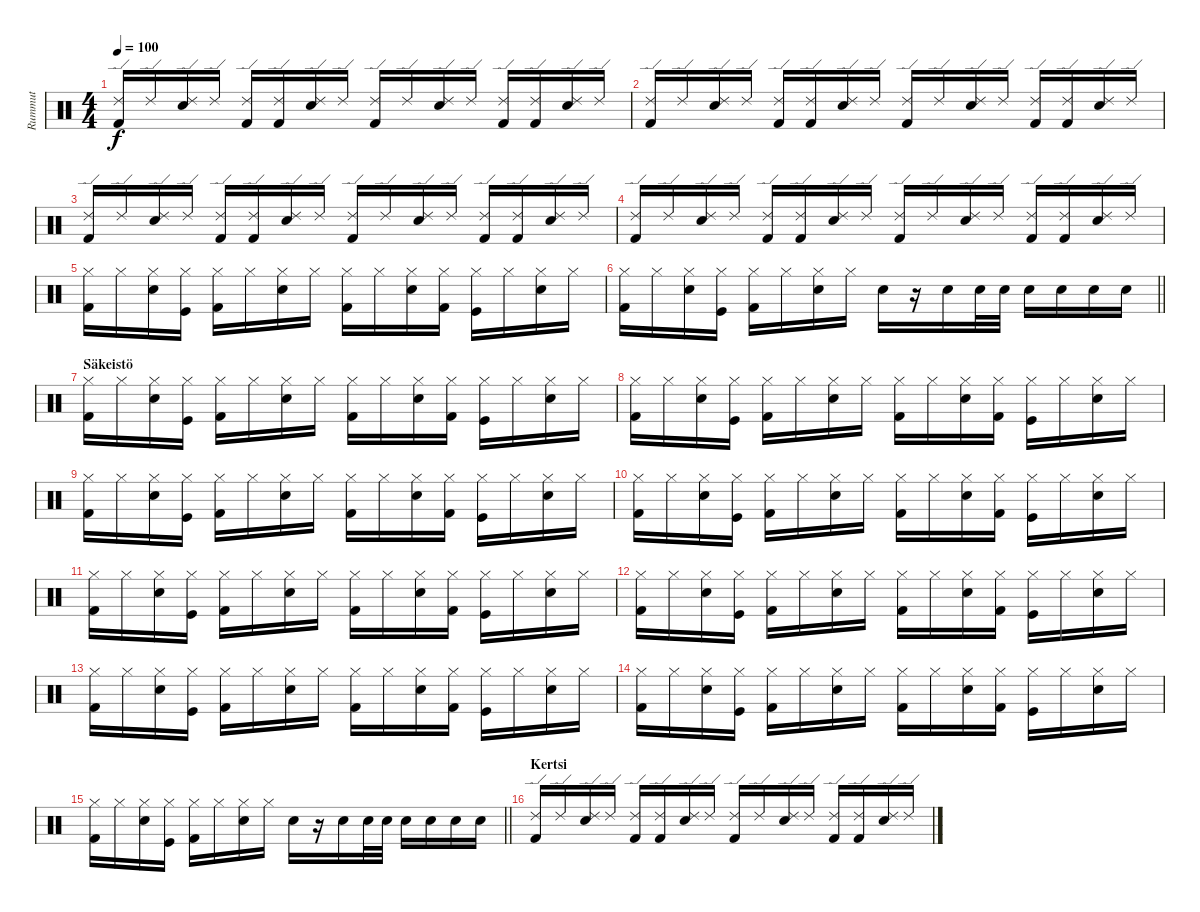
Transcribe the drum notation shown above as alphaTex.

\track ("Rummut" "Rummut") {instrument percussion}
\staff {score}
\articulation defaults
\ts (4 4)
\tempo 100
\clef neutral
\ks c
("Ride (edge) 2" "Kick (hit) 2").16{dy f} "Ride (edge) 2".16 ("Ride (edge) 2" "Snare (hit) 2").16 "Ride (edge) 2".16 ("Ride (edge) 2" "Kick (hit) 2").16 ("Ride (edge) 2" "Kick (hit) 2").16 ("Ride (edge) 2" "Snare (hit) 2").16 "Ride (edge) 2".16 ("Ride (edge) 2" "Kick (hit) 2").16 "Ride (edge) 2".16 ("Ride (edge) 2" "Snare (hit) 2").16 "Ride (edge) 2".16 ("Ride (edge) 2" "Kick (hit) 2").16 ("Ride (edge) 2" "Kick (hit) 2").16 ("Ride (edge) 2" "Snare (hit) 2").16 "Ride (edge) 2".16 |
("Ride (edge) 2" "Kick (hit) 2").16 "Ride (edge) 2".16 ("Ride (edge) 2" "Snare (hit) 2").16 "Ride (edge) 2".16 ("Ride (edge) 2" "Kick (hit) 2").16 ("Ride (edge) 2" "Kick (hit) 2").16 ("Ride (edge) 2" "Snare (hit) 2").16 "Ride (edge) 2".16 ("Ride (edge) 2" "Kick (hit) 2").16 "Ride (edge) 2".16 ("Ride (edge) 2" "Snare (hit) 2").16 "Ride (edge) 2".16 ("Ride (edge) 2" "Kick (hit) 2").16 ("Ride (edge) 2" "Kick (hit) 2").16 ("Ride (edge) 2" "Snare (hit) 2").16 "Ride (edge) 2".16 |
("Ride (edge) 2" "Kick (hit) 2").16 "Ride (edge) 2".16 ("Ride (edge) 2" "Snare (hit) 2").16 "Ride (edge) 2".16 ("Ride (edge) 2" "Kick (hit) 2").16 ("Ride (edge) 2" "Kick (hit) 2").16 ("Ride (edge) 2" "Snare (hit) 2").16 "Ride (edge) 2".16 ("Ride (edge) 2" "Kick (hit) 2").16 "Ride (edge) 2".16 ("Ride (edge) 2" "Snare (hit) 2").16 "Ride (edge) 2".16 ("Ride (edge) 2" "Kick (hit) 2").16 ("Ride (edge) 2" "Kick (hit) 2").16 ("Ride (edge) 2" "Snare (hit) 2").16 "Ride (edge) 2".16 |
("Ride (edge) 2" "Kick (hit) 2").16 "Ride (edge) 2".16 ("Ride (edge) 2" "Snare (hit) 2").16 "Ride (edge) 2".16 ("Ride (edge) 2" "Kick (hit) 2").16 ("Ride (edge) 2" "Kick (hit) 2").16 ("Ride (edge) 2" "Snare (hit) 2").16 "Ride (edge) 2".16 ("Ride (edge) 2" "Kick (hit) 2").16 "Ride (edge) 2".16 ("Ride (edge) 2" "Snare (hit) 2").16 "Ride (edge) 2".16 ("Ride (edge) 2" "Kick (hit) 2").16 ("Ride (edge) 2" "Kick (hit) 2").16 ("Ride (edge) 2" "Snare (hit) 2").16 "Ride (edge) 2".16 |
("Hi-Hat (closed)" "Kick (hit) 2").16 "Hi-Hat (closed)".16 ("Hi-Hat (closed)" "Snare (hit) 2").16 ("Hi-Hat (closed)" "Kick (hit)").16 ("Hi-Hat (closed)" "Kick (hit) 2").16 "Hi-Hat (closed)".16 ("Hi-Hat (closed)" "Snare (hit) 2").16 "Hi-Hat (closed)".16 ("Hi-Hat (closed)" "Kick (hit) 2").16 "Hi-Hat (closed)".16 ("Hi-Hat (closed)" "Snare (hit) 2").16 ("Hi-Hat (closed)" "Kick (hit) 2").16 ("Hi-Hat (closed)" "Kick (hit)").16 "Hi-Hat (closed)".16 ("Hi-Hat (closed)" "Snare (hit) 2").16 "Hi-Hat (closed)".16 |
\barLineRight lightlight
("Hi-Hat (closed)" "Kick (hit) 2").16 "Hi-Hat (closed)".16 ("Hi-Hat (closed)" "Snare (hit) 2").16 ("Hi-Hat (closed)" "Kick (hit)").16 ("Hi-Hat (closed)" "Kick (hit) 2").16 "Hi-Hat (closed)".16 ("Hi-Hat (closed)" "Snare (hit) 2").16 "Hi-Hat (closed)".16 "Snare (hit) 2".16 r.16 "Snare (hit) 2".16 "Snare (hit) 2".32 "Snare (hit) 2".32 "Snare (hit) 2".16 "Snare (hit) 2".16 "Snare (hit) 2".16 "Snare (hit) 2".16 |
\section ("" "Säkeistö")
("Hi-Hat (closed)" "Kick (hit) 2").16 "Hi-Hat (closed)".16 ("Hi-Hat (closed)" "Snare (hit) 2").16 ("Hi-Hat (closed)" "Kick (hit)").16 ("Hi-Hat (closed)" "Kick (hit) 2").16 "Hi-Hat (closed)".16 ("Hi-Hat (closed)" "Snare (hit) 2").16 "Hi-Hat (closed)".16 ("Hi-Hat (closed)" "Kick (hit) 2").16 "Hi-Hat (closed)".16 ("Hi-Hat (closed)" "Snare (hit) 2").16 ("Hi-Hat (closed)" "Kick (hit) 2").16 ("Hi-Hat (closed)" "Kick (hit)").16 "Hi-Hat (closed)".16 ("Hi-Hat (closed)" "Snare (hit) 2").16 "Hi-Hat (closed)".16 |
("Hi-Hat (closed)" "Kick (hit) 2").16 "Hi-Hat (closed)".16 ("Hi-Hat (closed)" "Snare (hit) 2").16 ("Hi-Hat (closed)" "Kick (hit)").16 ("Hi-Hat (closed)" "Kick (hit) 2").16 "Hi-Hat (closed)".16 ("Hi-Hat (closed)" "Snare (hit) 2").16 "Hi-Hat (closed)".16 ("Hi-Hat (closed)" "Kick (hit) 2").16 "Hi-Hat (closed)".16 ("Hi-Hat (closed)" "Snare (hit) 2").16 ("Hi-Hat (closed)" "Kick (hit) 2").16 ("Hi-Hat (closed)" "Kick (hit)").16 "Hi-Hat (closed)".16 ("Hi-Hat (closed)" "Snare (hit) 2").16 "Hi-Hat (closed)".16 |
("Hi-Hat (closed)" "Kick (hit) 2").16 "Hi-Hat (closed)".16 ("Hi-Hat (closed)" "Snare (hit) 2").16 ("Hi-Hat (closed)" "Kick (hit)").16 ("Hi-Hat (closed)" "Kick (hit) 2").16 "Hi-Hat (closed)".16 ("Hi-Hat (closed)" "Snare (hit) 2").16 "Hi-Hat (closed)".16 ("Hi-Hat (closed)" "Kick (hit) 2").16 "Hi-Hat (closed)".16 ("Hi-Hat (closed)" "Snare (hit) 2").16 ("Hi-Hat (closed)" "Kick (hit) 2").16 ("Hi-Hat (closed)" "Kick (hit)").16 "Hi-Hat (closed)".16 ("Hi-Hat (closed)" "Snare (hit) 2").16 "Hi-Hat (closed)".16 |
("Hi-Hat (closed)" "Kick (hit) 2").16 "Hi-Hat (closed)".16 ("Hi-Hat (closed)" "Snare (hit) 2").16 ("Hi-Hat (closed)" "Kick (hit)").16 ("Hi-Hat (closed)" "Kick (hit) 2").16 "Hi-Hat (closed)".16 ("Hi-Hat (closed)" "Snare (hit) 2").16 "Hi-Hat (closed)".16 ("Hi-Hat (closed)" "Kick (hit) 2").16 "Hi-Hat (closed)".16 ("Hi-Hat (closed)" "Snare (hit) 2").16 ("Hi-Hat (closed)" "Kick (hit) 2").16 ("Hi-Hat (closed)" "Kick (hit)").16 "Hi-Hat (closed)".16 ("Hi-Hat (closed)" "Snare (hit) 2").16 "Hi-Hat (closed)".16 |
("Hi-Hat (closed)" "Kick (hit) 2").16 "Hi-Hat (closed)".16 ("Hi-Hat (closed)" "Snare (hit) 2").16 ("Hi-Hat (closed)" "Kick (hit)").16 ("Hi-Hat (closed)" "Kick (hit) 2").16 "Hi-Hat (closed)".16 ("Hi-Hat (closed)" "Snare (hit) 2").16 "Hi-Hat (closed)".16 ("Hi-Hat (closed)" "Kick (hit) 2").16 "Hi-Hat (closed)".16 ("Hi-Hat (closed)" "Snare (hit) 2").16 ("Hi-Hat (closed)" "Kick (hit) 2").16 ("Hi-Hat (closed)" "Kick (hit)").16 "Hi-Hat (closed)".16 ("Hi-Hat (closed)" "Snare (hit) 2").16 "Hi-Hat (closed)".16 |
("Hi-Hat (closed)" "Kick (hit) 2").16 "Hi-Hat (closed)".16 ("Hi-Hat (closed)" "Snare (hit) 2").16 ("Hi-Hat (closed)" "Kick (hit)").16 ("Hi-Hat (closed)" "Kick (hit) 2").16 "Hi-Hat (closed)".16 ("Hi-Hat (closed)" "Snare (hit) 2").16 "Hi-Hat (closed)".16 ("Hi-Hat (closed)" "Kick (hit) 2").16 "Hi-Hat (closed)".16 ("Hi-Hat (closed)" "Snare (hit) 2").16 ("Hi-Hat (closed)" "Kick (hit) 2").16 ("Hi-Hat (closed)" "Kick (hit)").16 "Hi-Hat (closed)".16 ("Hi-Hat (closed)" "Snare (hit) 2").16 "Hi-Hat (closed)".16 |
("Hi-Hat (closed)" "Kick (hit) 2").16 "Hi-Hat (closed)".16 ("Hi-Hat (closed)" "Snare (hit) 2").16 ("Hi-Hat (closed)" "Kick (hit)").16 ("Hi-Hat (closed)" "Kick (hit) 2").16 "Hi-Hat (closed)".16 ("Hi-Hat (closed)" "Snare (hit) 2").16 "Hi-Hat (closed)".16 ("Hi-Hat (closed)" "Kick (hit) 2").16 "Hi-Hat (closed)".16 ("Hi-Hat (closed)" "Snare (hit) 2").16 ("Hi-Hat (closed)" "Kick (hit) 2").16 ("Hi-Hat (closed)" "Kick (hit)").16 "Hi-Hat (closed)".16 ("Hi-Hat (closed)" "Snare (hit) 2").16 "Hi-Hat (closed)".16 |
("Hi-Hat (closed)" "Kick (hit) 2").16 "Hi-Hat (closed)".16 ("Hi-Hat (closed)" "Snare (hit) 2").16 ("Hi-Hat (closed)" "Kick (hit)").16 ("Hi-Hat (closed)" "Kick (hit) 2").16 "Hi-Hat (closed)".16 ("Hi-Hat (closed)" "Snare (hit) 2").16 "Hi-Hat (closed)".16 ("Hi-Hat (closed)" "Kick (hit) 2").16 "Hi-Hat (closed)".16 ("Hi-Hat (closed)" "Snare (hit) 2").16 ("Hi-Hat (closed)" "Kick (hit) 2").16 ("Hi-Hat (closed)" "Kick (hit)").16 "Hi-Hat (closed)".16 ("Hi-Hat (closed)" "Snare (hit) 2").16 "Hi-Hat (closed)".16 |
\barLineRight lightlight
("Hi-Hat (closed)" "Kick (hit) 2").16 "Hi-Hat (closed)".16 ("Hi-Hat (closed)" "Snare (hit) 2").16 ("Hi-Hat (closed)" "Kick (hit)").16 ("Hi-Hat (closed)" "Kick (hit) 2").16 "Hi-Hat (closed)".16 ("Hi-Hat (closed)" "Snare (hit) 2").16 "Hi-Hat (closed)".16 "Snare (hit) 2".16 r.16 "Snare (hit) 2".16 "Snare (hit) 2".32 "Snare (hit) 2".32 "Snare (hit) 2".16 "Snare (hit) 2".16 "Snare (hit) 2".16 "Snare (hit) 2".16 |
\section ("" "Kertsi")
("Ride (edge) 2" "Kick (hit) 2").16 "Ride (edge) 2".16 ("Ride (edge) 2" "Snare (hit) 2").16 "Ride (edge) 2".16 ("Ride (edge) 2" "Kick (hit) 2").16 ("Ride (edge) 2" "Kick (hit) 2").16 ("Ride (edge) 2" "Snare (hit) 2").16 "Ride (edge) 2".16 ("Ride (edge) 2" "Kick (hit) 2").16 "Ride (edge) 2".16 ("Ride (edge) 2" "Snare (hit) 2").16 "Ride (edge) 2".16 ("Ride (edge) 2" "Kick (hit) 2").16 ("Ride (edge) 2" "Kick (hit) 2").16 ("Ride (edge) 2" "Snare (hit) 2").16 "Ride (edge) 2".16
